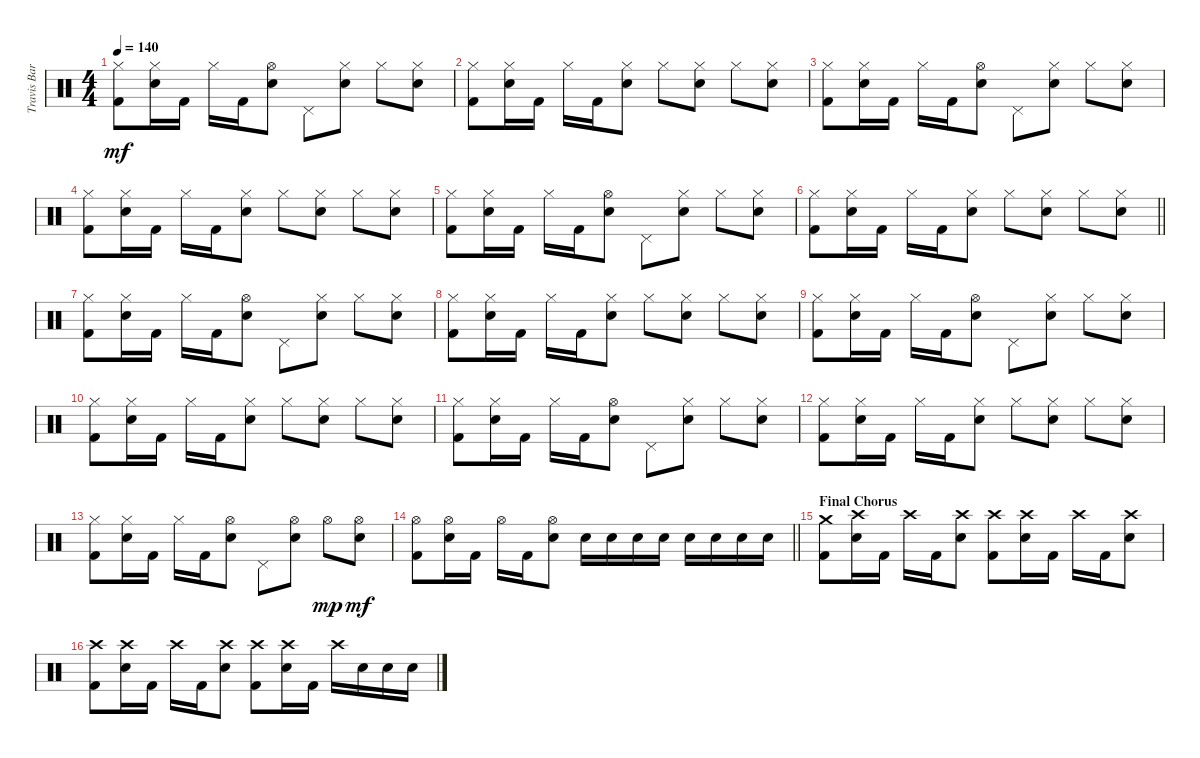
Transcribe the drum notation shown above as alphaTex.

\track ("Travis Barker" "Travis Bar") {instrument percussion}
\staff {score}
\articulation defaults
\ts (4 4)
\tempo 140
\clef neutral
\ks c
("Hi-Hat (closed)" "Kick (hit) 2").8{dy mf} ("Hi-Hat (closed)" "Electric Snare (hit)").16 "Kick (hit) 2".16 "Hi-Hat (closed)".16 "Kick (hit) 2".16 ("Hi-Hat (open)" "Electric Snare (hit)").8 "Pedal Hi-Hat (hit)".8 ("Hi-Hat (closed)" "Electric Snare (hit)").8 "Hi-Hat (closed)".8 ("Hi-Hat (closed)" "Electric Snare (hit)").8 |
("Hi-Hat (closed)" "Kick (hit) 2").8 ("Hi-Hat (closed)" "Electric Snare (hit)").16 "Kick (hit) 2".16 "Hi-Hat (closed)".16 "Kick (hit) 2".16 ("Hi-Hat (closed)" "Electric Snare (hit)").8 "Hi-Hat (closed)".8 ("Hi-Hat (closed)" "Electric Snare (hit)").8 "Hi-Hat (closed)".8 ("Hi-Hat (closed)" "Electric Snare (hit)").8 |
("Hi-Hat (closed)" "Kick (hit) 2").8 ("Hi-Hat (closed)" "Electric Snare (hit)").16 "Kick (hit) 2".16 "Hi-Hat (closed)".16 "Kick (hit) 2".16 ("Hi-Hat (open)" "Electric Snare (hit)").8 "Pedal Hi-Hat (hit)".8 ("Hi-Hat (closed)" "Electric Snare (hit)").8 "Hi-Hat (closed)".8 ("Hi-Hat (closed)" "Electric Snare (hit)").8 |
("Hi-Hat (closed)" "Kick (hit) 2").8 ("Hi-Hat (closed)" "Electric Snare (hit)").16 "Kick (hit) 2".16 "Hi-Hat (closed)".16 "Kick (hit) 2".16 ("Hi-Hat (closed)" "Electric Snare (hit)").8 "Hi-Hat (closed)".8 ("Hi-Hat (closed)" "Electric Snare (hit)").8 "Hi-Hat (closed)".8 ("Hi-Hat (closed)" "Electric Snare (hit)").8 |
("Hi-Hat (closed)" "Kick (hit) 2").8 ("Hi-Hat (closed)" "Electric Snare (hit)").16 "Kick (hit) 2".16 "Hi-Hat (closed)".16 "Kick (hit) 2".16 ("Hi-Hat (open)" "Electric Snare (hit)").8 "Pedal Hi-Hat (hit)".8 ("Hi-Hat (closed)" "Electric Snare (hit)").8 "Hi-Hat (closed)".8 ("Hi-Hat (closed)" "Electric Snare (hit)").8 |
\barLineRight lightlight
("Hi-Hat (closed)" "Kick (hit) 2").8 ("Hi-Hat (closed)" "Electric Snare (hit)").16 "Kick (hit) 2".16 "Hi-Hat (closed)".16 "Kick (hit) 2".16 ("Hi-Hat (closed)" "Electric Snare (hit)").8 "Hi-Hat (closed)".8 ("Hi-Hat (closed)" "Electric Snare (hit)").8 "Hi-Hat (closed)".8 ("Hi-Hat (closed)" "Electric Snare (hit)").8 |
("Hi-Hat (closed)" "Kick (hit) 2").8 ("Hi-Hat (closed)" "Electric Snare (hit)").16 "Kick (hit) 2".16 "Hi-Hat (closed)".16 "Kick (hit) 2".16 ("Hi-Hat (open)" "Electric Snare (hit)").8 "Pedal Hi-Hat (hit)".8 ("Hi-Hat (closed)" "Electric Snare (hit)").8 "Hi-Hat (closed)".8 ("Hi-Hat (closed)" "Electric Snare (hit)").8 |
("Hi-Hat (closed)" "Kick (hit) 2").8 ("Hi-Hat (closed)" "Electric Snare (hit)").16 "Kick (hit) 2".16 "Hi-Hat (closed)".16 "Kick (hit) 2".16 ("Hi-Hat (closed)" "Electric Snare (hit)").8 "Hi-Hat (closed)".8 ("Hi-Hat (closed)" "Electric Snare (hit)").8 "Hi-Hat (closed)".8 ("Hi-Hat (closed)" "Electric Snare (hit)").8 |
("Hi-Hat (closed)" "Kick (hit) 2").8 ("Hi-Hat (closed)" "Electric Snare (hit)").16 "Kick (hit) 2".16 "Hi-Hat (closed)".16 "Kick (hit) 2".16 ("Hi-Hat (open)" "Electric Snare (hit)").8 "Pedal Hi-Hat (hit)".8 ("Hi-Hat (closed)" "Electric Snare (hit)").8 "Hi-Hat (closed)".8 ("Hi-Hat (closed)" "Electric Snare (hit)").8 |
("Hi-Hat (closed)" "Kick (hit) 2").8 ("Hi-Hat (closed)" "Electric Snare (hit)").16 "Kick (hit) 2".16 "Hi-Hat (closed)".16 "Kick (hit) 2".16 ("Hi-Hat (closed)" "Electric Snare (hit)").8 "Hi-Hat (closed)".8 ("Hi-Hat (closed)" "Electric Snare (hit)").8 "Hi-Hat (closed)".8 ("Hi-Hat (closed)" "Electric Snare (hit)").8 |
("Hi-Hat (closed)" "Kick (hit) 2").8 ("Hi-Hat (closed)" "Electric Snare (hit)").16 "Kick (hit) 2".16 "Hi-Hat (closed)".16 "Kick (hit) 2".16 ("Hi-Hat (open)" "Electric Snare (hit)").8 "Pedal Hi-Hat (hit)".8 ("Hi-Hat (closed)" "Electric Snare (hit)").8 "Hi-Hat (closed)".8 ("Hi-Hat (closed)" "Electric Snare (hit)").8 |
("Hi-Hat (closed)" "Kick (hit) 2").8 ("Hi-Hat (closed)" "Electric Snare (hit)").16 "Kick (hit) 2".16 "Hi-Hat (closed)".16 "Kick (hit) 2".16 ("Hi-Hat (closed)" "Electric Snare (hit)").8 "Hi-Hat (closed)".8 ("Hi-Hat (closed)" "Electric Snare (hit)").8 "Hi-Hat (closed)".8 ("Hi-Hat (closed)" "Electric Snare (hit)").8 |
("Hi-Hat (closed)" "Kick (hit) 2").8 ("Hi-Hat (closed)" "Electric Snare (hit)").16 "Kick (hit) 2".16 "Hi-Hat (closed)".16 "Kick (hit) 2".16 ("Hi-Hat (open)" "Electric Snare (hit)").8 "Pedal Hi-Hat (hit)".8 ("Hi-Hat (open)" "Electric Snare (hit)").8 "Hi-Hat (open)".8{dy mp} ("Hi-Hat (open)" "Electric Snare (hit)").8{dy mf} |
\barLineRight lightlight
("Hi-Hat (open)" "Kick (hit) 2").8 ("Hi-Hat (open)" "Electric Snare (hit)").16 "Kick (hit) 2".16 "Hi-Hat (open)".16 "Kick (hit) 2".16 ("Hi-Hat (open)" "Electric Snare (hit)").8 "Electric Snare (hit)".16 "Electric Snare (hit)".16 "Electric Snare (hit)".16 "Electric Snare (hit)".16 "Electric Snare (hit)".16 "Electric Snare (hit)".16 "Electric Snare (hit)".16 "Electric Snare (hit)".16 |
\section ("" "Final Chorus")
("Crash medium (hit)" "Kick (hit) 2").8 ("Crash high (hit)" "Electric Snare (hit)").16 "Kick (hit) 2".16 "Crash high (hit)".16 "Kick (hit) 2".16 ("Crash high (hit)" "Electric Snare (hit)").8 ("Crash high (hit)" "Kick (hit) 2").8 ("Crash high (hit)" "Electric Snare (hit)").16 "Kick (hit) 2".16 "Crash high (hit)".16 "Kick (hit) 2".16 ("Crash high (hit)" "Electric Snare (hit)").8 |
("Crash high (hit)" "Kick (hit) 2").8 ("Crash high (hit)" "Electric Snare (hit)").16 "Kick (hit) 2".16 "Crash high (hit)".16 "Kick (hit) 2".16 ("Crash high (hit)" "Electric Snare (hit)").8 ("Crash high (hit)" "Kick (hit) 2").8 ("Crash high (hit)" "Electric Snare (hit)").16 "Kick (hit) 2".16 "Crash high (hit)".16 "Electric Snare (hit)".16 "Electric Snare (hit)".16 "Electric Snare (hit)".16
